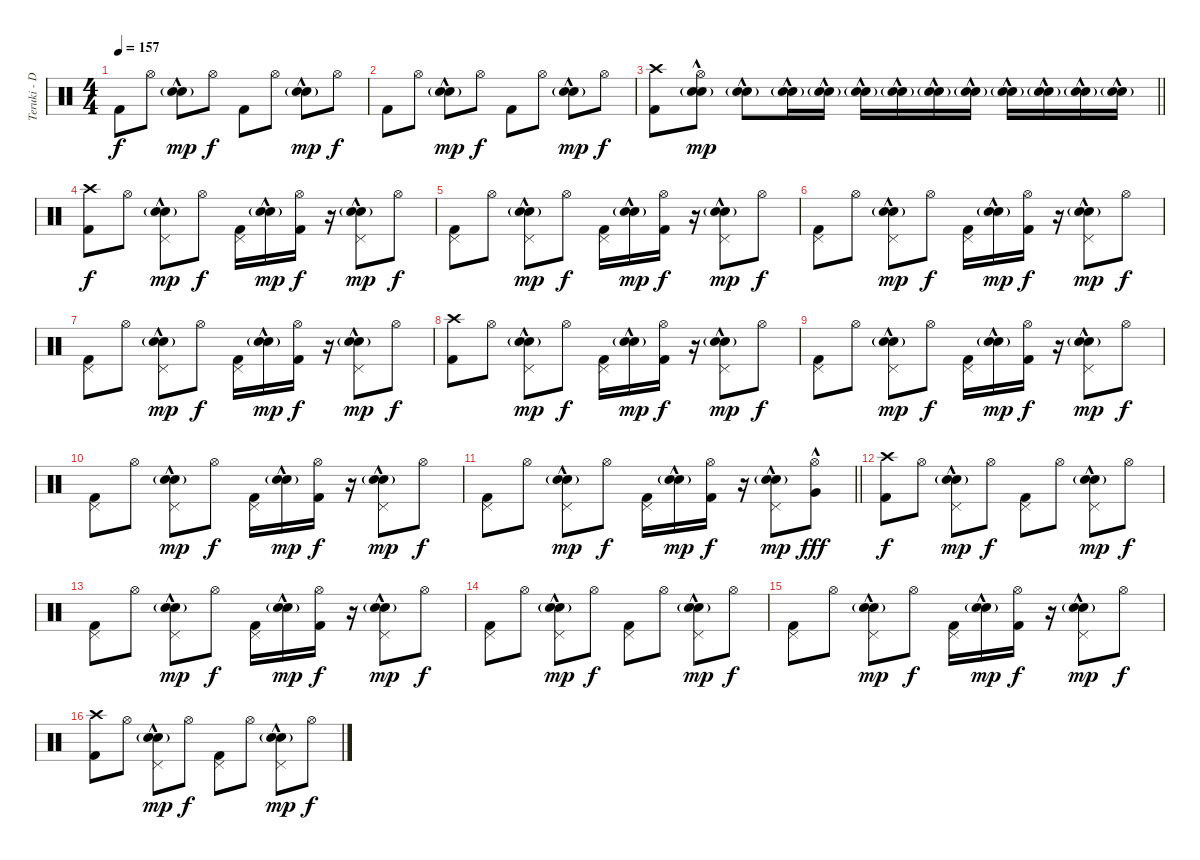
\track ("Teruki - Drums" "Teruki - D") {instrument percussion}
\staff {score}
\articulation defaults
\ts (4 4)
\tempo 157
\clef neutral
\ks c "Kick (hit) 2".8{dy f} "Hi-Hat (open)".8
("Electric Snare (hit)"{hac} "Snare (hit) 2"{g}).8{dy mp} "Hi-Hat (open)".8{dy f} "Kick (hit) 2".8 "Hi-Hat (open)".8 ("Electric Snare (hit)"{hac} "Snare (hit) 2"{g}).8{dy mp} "Hi-Hat (open)".8{dy f} |
"Kick (hit) 2".8 "Hi-Hat (open)".8 ("Electric Snare (hit)"{hac} "Snare (hit) 2"{g}).8{dy mp} "Hi-Hat (open)".8{dy f} "Kick (hit) 2".8 "Hi-Hat (open)".8 ("Electric Snare (hit)"{hac} "Snare (hit) 2"{g}).8{dy mp} "Hi-Hat (open)".8{dy f} |
\barLineRight lightlight
("Crash high (hit)" "Kick (hit) 2").8 ("Hi-Hat (open)" "Electric Snare (hit)"{hac} "Snare (hit) 2"{g}).8{dy mp} ("Electric Snare (hit)"{hac} "Snare (hit) 2"{g}).8 ("Electric Snare (hit)"{hac} "Snare (hit) 2"{g}).16 ("Electric Snare (hit)"{hac} "Snare (hit) 2"{g}).16 ("Electric Snare (hit)"{hac} "Snare (hit) 2"{g}).16 ("Electric Snare (hit)"{hac} "Snare (hit) 2"{g}).16 ("Electric Snare (hit)"{hac} "Snare (hit) 2"{g}).16 ("Electric Snare (hit)"{hac} "Snare (hit) 2"{g}).16 ("Electric Snare (hit)"{hac} "Snare (hit) 2"{g}).16 ("Electric Snare (hit)"{hac} "Snare (hit) 2"{g}).16 ("Electric Snare (hit)"{hac} "Snare (hit) 2"{g}).16 ("Electric Snare (hit)"{hac} "Snare (hit) 2"{g}).16 |
\section ("" "")
("Crash high (hit)" "Kick (hit) 2").8{dy f} "Hi-Hat (open)".8 ("Pedal Hi-Hat (hit)" "Electric Snare (hit)"{hac} "Snare (hit) 2"{g}).8{dy mp} "Hi-Hat (open)".8{dy f} ("Pedal Hi-Hat (hit)" "Kick (hit) 2").16 ("Electric Snare (hit)"{hac} "Snare (hit) 2"{g}).16{dy mp} ("Hi-Hat (open)" "Kick (hit) 2").16{dy f} r.16 ("Pedal Hi-Hat (hit)" "Electric Snare (hit)"{hac} "Snare (hit) 2"{g}).8{dy mp} "Hi-Hat (open)".8{dy f} |
("Pedal Hi-Hat (hit)" "Kick (hit) 2").8 "Hi-Hat (open)".8 ("Pedal Hi-Hat (hit)" "Electric Snare (hit)"{hac} "Snare (hit) 2"{g}).8{dy mp} "Hi-Hat (open)".8{dy f} ("Pedal Hi-Hat (hit)" "Kick (hit) 2").16 ("Electric Snare (hit)"{hac} "Snare (hit) 2"{g}).16{dy mp} ("Hi-Hat (open)" "Kick (hit) 2").16{dy f} r.16 ("Pedal Hi-Hat (hit)" "Electric Snare (hit)"{hac} "Snare (hit) 2"{g}).8{dy mp} "Hi-Hat (open)".8{dy f} |
("Pedal Hi-Hat (hit)" "Kick (hit) 2").8 "Hi-Hat (open)".8 ("Pedal Hi-Hat (hit)" "Electric Snare (hit)"{hac} "Snare (hit) 2"{g}).8{dy mp} "Hi-Hat (open)".8{dy f} ("Pedal Hi-Hat (hit)" "Kick (hit) 2").16 ("Electric Snare (hit)"{hac} "Snare (hit) 2"{g}).16{dy mp} ("Hi-Hat (open)" "Kick (hit) 2").16{dy f} r.16 ("Pedal Hi-Hat (hit)" "Electric Snare (hit)"{hac} "Snare (hit) 2"{g}).8{dy mp} "Hi-Hat (open)".8{dy f} |
("Pedal Hi-Hat (hit)" "Kick (hit) 2").8 "Hi-Hat (open)".8 ("Pedal Hi-Hat (hit)" "Electric Snare (hit)"{hac} "Snare (hit) 2"{g}).8{dy mp} "Hi-Hat (open)".8{dy f} ("Pedal Hi-Hat (hit)" "Kick (hit) 2").16 ("Electric Snare (hit)"{hac} "Snare (hit) 2"{g}).16{dy mp} ("Hi-Hat (open)" "Kick (hit) 2").16{dy f} r.16 ("Pedal Hi-Hat (hit)" "Electric Snare (hit)"{hac} "Snare (hit) 2"{g}).8{dy mp} "Hi-Hat (open)".8{dy f} |
("Crash high (hit)" "Kick (hit) 2").8 "Hi-Hat (open)".8 ("Pedal Hi-Hat (hit)" "Electric Snare (hit)"{hac} "Snare (hit) 2"{g}).8{dy mp} "Hi-Hat (open)".8{dy f} ("Pedal Hi-Hat (hit)" "Kick (hit) 2").16 ("Electric Snare (hit)"{hac} "Snare (hit) 2"{g}).16{dy mp} ("Hi-Hat (open)" "Kick (hit) 2").16{dy f} r.16 ("Pedal Hi-Hat (hit)" "Electric Snare (hit)"{hac} "Snare (hit) 2"{g}).8{dy mp} "Hi-Hat (open)".8{dy f} |
("Pedal Hi-Hat (hit)" "Kick (hit) 2").8 "Hi-Hat (open)".8 ("Pedal Hi-Hat (hit)" "Electric Snare (hit)"{hac} "Snare (hit) 2"{g}).8{dy mp} "Hi-Hat (open)".8{dy f} ("Pedal Hi-Hat (hit)" "Kick (hit) 2").16 ("Electric Snare (hit)"{hac} "Snare (hit) 2"{g}).16{dy mp} ("Hi-Hat (open)" "Kick (hit) 2").16{dy f} r.16 ("Pedal Hi-Hat (hit)" "Electric Snare (hit)"{hac} "Snare (hit) 2"{g}).8{dy mp} "Hi-Hat (open)".8{dy f} |
("Pedal Hi-Hat (hit)" "Kick (hit) 2").8 "Hi-Hat (open)".8 ("Pedal Hi-Hat (hit)" "Electric Snare (hit)"{hac} "Snare (hit) 2"{g}).8{dy mp} "Hi-Hat (open)".8{dy f} ("Pedal Hi-Hat (hit)" "Kick (hit) 2").16 ("Electric Snare (hit)"{hac} "Snare (hit) 2"{g}).16{dy mp} ("Hi-Hat (open)" "Kick (hit) 2").16{dy f} r.16 ("Pedal Hi-Hat (hit)" "Electric Snare (hit)"{hac} "Snare (hit) 2"{g}).8{dy mp} "Hi-Hat (open)".8{dy f} |
\barLineRight lightlight
("Pedal Hi-Hat (hit)" "Kick (hit) 2").8 "Hi-Hat (open)".8 ("Pedal Hi-Hat (hit)" "Electric Snare (hit)"{hac} "Snare (hit) 2"{g}).8{dy mp} "Hi-Hat (open)".8{dy f} ("Pedal Hi-Hat (hit)" "Kick (hit) 2").16 ("Electric Snare (hit)"{hac} "Snare (hit) 2"{g}).16{dy mp} ("Hi-Hat (open)" "Kick (hit) 2").16{dy f} r.16 ("Pedal Hi-Hat (hit)" "Electric Snare (hit)"{hac} "Snare (hit) 2"{g}).8{dy mp} ("Hi-Hat (open)" "Very Low Tom (hit)"{hac}).8{dy fff} |
\section ("" "")
("Crash high (hit)" "Kick (hit) 2").8{dy f} "Hi-Hat (open)".8 ("Pedal Hi-Hat (hit)" "Electric Snare (hit)"{hac} "Snare (hit) 2"{g}).8{dy mp} "Hi-Hat (open)".8{dy f} ("Pedal Hi-Hat (hit)" "Kick (hit) 2").8 "Hi-Hat (open)".8 ("Pedal Hi-Hat (hit)" "Electric Snare (hit)"{hac} "Snare (hit) 2"{g}).8{dy mp} "Hi-Hat (open)".8{dy f} |
("Pedal Hi-Hat (hit)" "Kick (hit) 2").8 "Hi-Hat (open)".8 ("Pedal Hi-Hat (hit)" "Electric Snare (hit)"{hac} "Snare (hit) 2"{g}).8{dy mp} "Hi-Hat (open)".8{dy f} ("Pedal Hi-Hat (hit)" "Kick (hit) 2").16 ("Electric Snare (hit)"{hac} "Snare (hit) 2"{g}).16{dy mp} ("Hi-Hat (open)" "Kick (hit) 2").16{dy f} r.16 ("Pedal Hi-Hat (hit)" "Electric Snare (hit)"{hac} "Snare (hit) 2"{g}).8{dy mp} "Hi-Hat (open)".8{dy f} |
("Pedal Hi-Hat (hit)" "Kick (hit) 2").8 "Hi-Hat (open)".8 ("Pedal Hi-Hat (hit)" "Electric Snare (hit)"{hac} "Snare (hit) 2"{g}).8{dy mp} "Hi-Hat (open)".8{dy f} ("Pedal Hi-Hat (hit)" "Kick (hit) 2").8 "Hi-Hat (open)".8 ("Pedal Hi-Hat (hit)" "Electric Snare (hit)"{hac} "Snare (hit) 2"{g}).8{dy mp} "Hi-Hat (open)".8{dy f} |
("Pedal Hi-Hat (hit)" "Kick (hit) 2").8 "Hi-Hat (open)".8 ("Pedal Hi-Hat (hit)" "Electric Snare (hit)"{hac} "Snare (hit) 2"{g}).8{dy mp} "Hi-Hat (open)".8{dy f} ("Pedal Hi-Hat (hit)" "Kick (hit) 2").16 ("Electric Snare (hit)"{hac} "Snare (hit) 2"{g}).16{dy mp} ("Hi-Hat (open)" "Kick (hit) 2").16{dy f} r.16 ("Pedal Hi-Hat (hit)" "Electric Snare (hit)"{hac} "Snare (hit) 2"{g}).8{dy mp} "Hi-Hat (open)".8{dy f} |
("Crash high (hit)" "Kick (hit) 2").8 "Hi-Hat (open)".8 ("Pedal Hi-Hat (hit)" "Electric Snare (hit)"{hac} "Snare (hit) 2"{g}).8{dy mp} "Hi-Hat (open)".8{dy f} ("Pedal Hi-Hat (hit)" "Kick (hit) 2").8 "Hi-Hat (open)".8 ("Pedal Hi-Hat (hit)" "Electric Snare (hit)"{hac} "Snare (hit) 2"{g}).8{dy mp} "Hi-Hat (open)".8{dy f}
